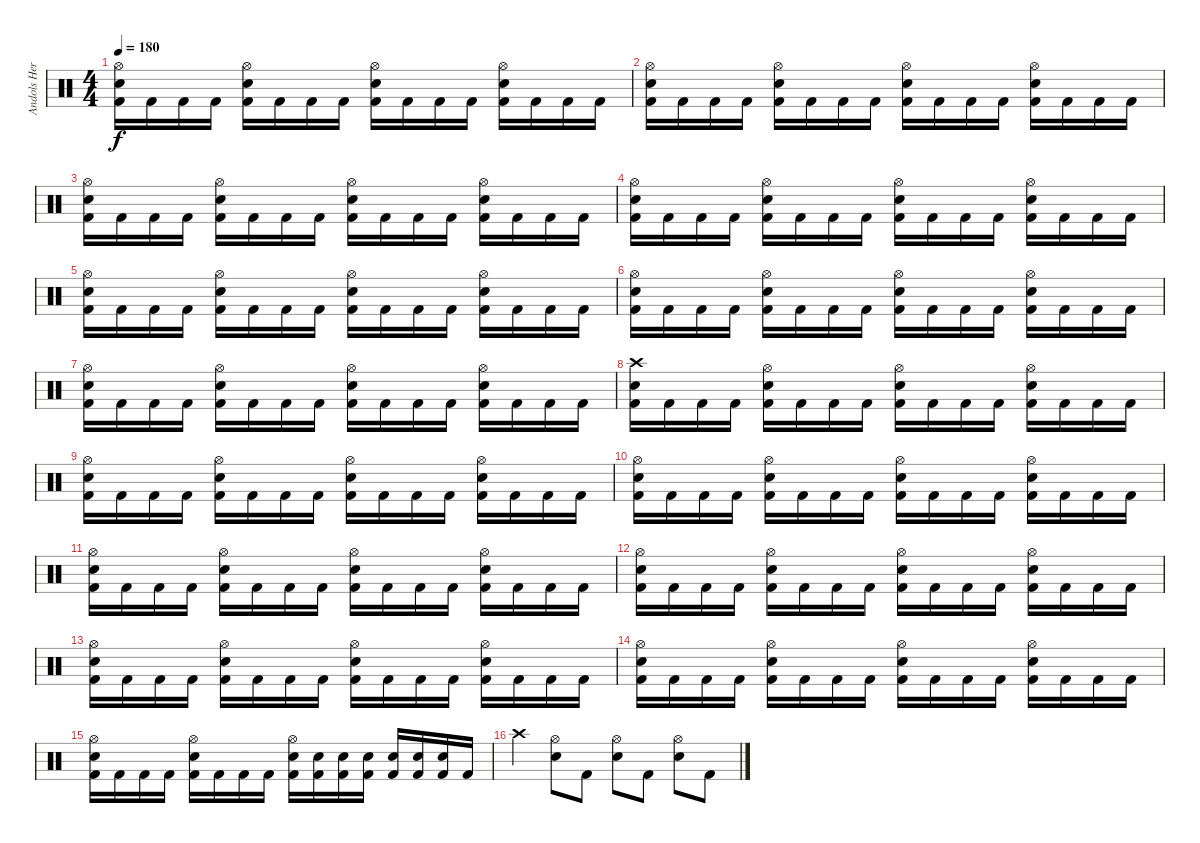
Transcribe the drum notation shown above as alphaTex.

\track ("Andols Herrick" "Andols Her") {instrument percussion}
\staff {score}
\articulation defaults
\ts (4 4)
\tempo 180
\clef neutral
\ks c
("Hi-Hat (open)" "Electric Snare (hit)" "Kick (hit) 2").16{dy f} "Kick (hit) 2".16 "Kick (hit) 2".16 "Kick (hit) 2".16 ("Hi-Hat (open)" "Electric Snare (hit)" "Kick (hit) 2").16 "Kick (hit) 2".16 "Kick (hit) 2".16 "Kick (hit) 2".16 ("Hi-Hat (open)" "Electric Snare (hit)" "Kick (hit) 2").16 "Kick (hit) 2".16 "Kick (hit) 2".16 "Kick (hit) 2".16 ("Hi-Hat (open)" "Electric Snare (hit)" "Kick (hit) 2").16 "Kick (hit) 2".16 "Kick (hit) 2".16 "Kick (hit) 2".16 |
("Hi-Hat (open)" "Electric Snare (hit)" "Kick (hit) 2").16 "Kick (hit) 2".16 "Kick (hit) 2".16 "Kick (hit) 2".16 ("Hi-Hat (open)" "Electric Snare (hit)" "Kick (hit) 2").16 "Kick (hit) 2".16 "Kick (hit) 2".16 "Kick (hit) 2".16 ("Hi-Hat (open)" "Electric Snare (hit)" "Kick (hit) 2").16 "Kick (hit) 2".16 "Kick (hit) 2".16 "Kick (hit) 2".16 ("Hi-Hat (open)" "Electric Snare (hit)" "Kick (hit) 2").16 "Kick (hit) 2".16 "Kick (hit) 2".16 "Kick (hit) 2".16 |
("Hi-Hat (open)" "Electric Snare (hit)" "Kick (hit) 2").16 "Kick (hit) 2".16 "Kick (hit) 2".16 "Kick (hit) 2".16 ("Hi-Hat (open)" "Electric Snare (hit)" "Kick (hit) 2").16 "Kick (hit) 2".16 "Kick (hit) 2".16 "Kick (hit) 2".16 ("Hi-Hat (open)" "Electric Snare (hit)" "Kick (hit) 2").16 "Kick (hit) 2".16 "Kick (hit) 2".16 "Kick (hit) 2".16 ("Hi-Hat (open)" "Electric Snare (hit)" "Kick (hit) 2").16 "Kick (hit) 2".16 "Kick (hit) 2".16 "Kick (hit) 2".16 |
("Hi-Hat (open)" "Electric Snare (hit)" "Kick (hit) 2").16 "Kick (hit) 2".16 "Kick (hit) 2".16 "Kick (hit) 2".16 ("Hi-Hat (open)" "Electric Snare (hit)" "Kick (hit) 2").16 "Kick (hit) 2".16 "Kick (hit) 2".16 "Kick (hit) 2".16 ("Hi-Hat (open)" "Electric Snare (hit)" "Kick (hit) 2").16 "Kick (hit) 2".16 "Kick (hit) 2".16 "Kick (hit) 2".16 ("Hi-Hat (open)" "Electric Snare (hit)" "Kick (hit) 2").16 "Kick (hit) 2".16 "Kick (hit) 2".16 "Kick (hit) 2".16 |
("Hi-Hat (open)" "Electric Snare (hit)" "Kick (hit) 2").16 "Kick (hit) 2".16 "Kick (hit) 2".16 "Kick (hit) 2".16 ("Hi-Hat (open)" "Electric Snare (hit)" "Kick (hit) 2").16 "Kick (hit) 2".16 "Kick (hit) 2".16 "Kick (hit) 2".16 ("Hi-Hat (open)" "Electric Snare (hit)" "Kick (hit) 2").16 "Kick (hit) 2".16 "Kick (hit) 2".16 "Kick (hit) 2".16 ("Hi-Hat (open)" "Electric Snare (hit)" "Kick (hit) 2").16 "Kick (hit) 2".16 "Kick (hit) 2".16 "Kick (hit) 2".16 |
("Hi-Hat (open)" "Electric Snare (hit)" "Kick (hit) 2").16 "Kick (hit) 2".16 "Kick (hit) 2".16 "Kick (hit) 2".16 ("Hi-Hat (open)" "Electric Snare (hit)" "Kick (hit) 2").16 "Kick (hit) 2".16 "Kick (hit) 2".16 "Kick (hit) 2".16 ("Hi-Hat (open)" "Electric Snare (hit)" "Kick (hit) 2").16 "Kick (hit) 2".16 "Kick (hit) 2".16 "Kick (hit) 2".16 ("Hi-Hat (open)" "Electric Snare (hit)" "Kick (hit) 2").16 "Kick (hit) 2".16 "Kick (hit) 2".16 "Kick (hit) 2".16 |
("Hi-Hat (open)" "Electric Snare (hit)" "Kick (hit) 2").16 "Kick (hit) 2".16 "Kick (hit) 2".16 "Kick (hit) 2".16 ("Hi-Hat (open)" "Electric Snare (hit)" "Kick (hit) 2").16 "Kick (hit) 2".16 "Kick (hit) 2".16 "Kick (hit) 2".16 ("Hi-Hat (open)" "Electric Snare (hit)" "Kick (hit) 2").16 "Kick (hit) 2".16 "Kick (hit) 2".16 "Kick (hit) 2".16 ("Hi-Hat (open)" "Electric Snare (hit)" "Kick (hit) 2").16 "Kick (hit) 2".16 "Kick (hit) 2".16 "Kick (hit) 2".16 |
("Crash high (hit)" "Electric Snare (hit)" "Kick (hit) 2").16 "Kick (hit) 2".16 "Kick (hit) 2".16 "Kick (hit) 2".16 ("Hi-Hat (open)" "Electric Snare (hit)" "Kick (hit) 2").16 "Kick (hit) 2".16 "Kick (hit) 2".16 "Kick (hit) 2".16 ("Hi-Hat (open)" "Electric Snare (hit)" "Kick (hit) 2").16 "Kick (hit) 2".16 "Kick (hit) 2".16 "Kick (hit) 2".16 ("Hi-Hat (open)" "Electric Snare (hit)" "Kick (hit) 2").16 "Kick (hit) 2".16 "Kick (hit) 2".16 "Kick (hit) 2".16 |
("Hi-Hat (open)" "Electric Snare (hit)" "Kick (hit) 2").16 "Kick (hit) 2".16 "Kick (hit) 2".16 "Kick (hit) 2".16 ("Hi-Hat (open)" "Electric Snare (hit)" "Kick (hit) 2").16 "Kick (hit) 2".16 "Kick (hit) 2".16 "Kick (hit) 2".16 ("Hi-Hat (open)" "Electric Snare (hit)" "Kick (hit) 2").16 "Kick (hit) 2".16 "Kick (hit) 2".16 "Kick (hit) 2".16 ("Hi-Hat (open)" "Electric Snare (hit)" "Kick (hit) 2").16 "Kick (hit) 2".16 "Kick (hit) 2".16 "Kick (hit) 2".16 |
("Hi-Hat (open)" "Electric Snare (hit)" "Kick (hit) 2").16 "Kick (hit) 2".16 "Kick (hit) 2".16 "Kick (hit) 2".16 ("Hi-Hat (open)" "Electric Snare (hit)" "Kick (hit) 2").16 "Kick (hit) 2".16 "Kick (hit) 2".16 "Kick (hit) 2".16 ("Hi-Hat (open)" "Electric Snare (hit)" "Kick (hit) 2").16 "Kick (hit) 2".16 "Kick (hit) 2".16 "Kick (hit) 2".16 ("Hi-Hat (open)" "Electric Snare (hit)" "Kick (hit) 2").16 "Kick (hit) 2".16 "Kick (hit) 2".16 "Kick (hit) 2".16 |
("Hi-Hat (open)" "Electric Snare (hit)" "Kick (hit) 2").16 "Kick (hit) 2".16 "Kick (hit) 2".16 "Kick (hit) 2".16 ("Hi-Hat (open)" "Electric Snare (hit)" "Kick (hit) 2").16 "Kick (hit) 2".16 "Kick (hit) 2".16 "Kick (hit) 2".16 ("Hi-Hat (open)" "Electric Snare (hit)" "Kick (hit) 2").16 "Kick (hit) 2".16 "Kick (hit) 2".16 "Kick (hit) 2".16 ("Hi-Hat (open)" "Electric Snare (hit)" "Kick (hit) 2").16 "Kick (hit) 2".16 "Kick (hit) 2".16 "Kick (hit) 2".16 |
("Hi-Hat (open)" "Electric Snare (hit)" "Kick (hit) 2").16 "Kick (hit) 2".16 "Kick (hit) 2".16 "Kick (hit) 2".16 ("Hi-Hat (open)" "Electric Snare (hit)" "Kick (hit) 2").16 "Kick (hit) 2".16 "Kick (hit) 2".16 "Kick (hit) 2".16 ("Hi-Hat (open)" "Electric Snare (hit)" "Kick (hit) 2").16 "Kick (hit) 2".16 "Kick (hit) 2".16 "Kick (hit) 2".16 ("Hi-Hat (open)" "Electric Snare (hit)" "Kick (hit) 2").16 "Kick (hit) 2".16 "Kick (hit) 2".16 "Kick (hit) 2".16 |
("Hi-Hat (open)" "Electric Snare (hit)" "Kick (hit) 2").16 "Kick (hit) 2".16 "Kick (hit) 2".16 "Kick (hit) 2".16 ("Hi-Hat (open)" "Electric Snare (hit)" "Kick (hit) 2").16 "Kick (hit) 2".16 "Kick (hit) 2".16 "Kick (hit) 2".16 ("Hi-Hat (open)" "Electric Snare (hit)" "Kick (hit) 2").16 "Kick (hit) 2".16 "Kick (hit) 2".16 "Kick (hit) 2".16 ("Hi-Hat (open)" "Electric Snare (hit)" "Kick (hit) 2").16 "Kick (hit) 2".16 "Kick (hit) 2".16 "Kick (hit) 2".16 |
("Hi-Hat (open)" "Electric Snare (hit)" "Kick (hit) 2").16 "Kick (hit) 2".16 "Kick (hit) 2".16 "Kick (hit) 2".16 ("Hi-Hat (open)" "Electric Snare (hit)" "Kick (hit) 2").16 "Kick (hit) 2".16 "Kick (hit) 2".16 "Kick (hit) 2".16 ("Hi-Hat (open)" "Electric Snare (hit)" "Kick (hit) 2").16 "Kick (hit) 2".16 "Kick (hit) 2".16 "Kick (hit) 2".16 ("Hi-Hat (open)" "Electric Snare (hit)" "Kick (hit) 2").16 "Kick (hit) 2".16 "Kick (hit) 2".16 "Kick (hit) 2".16 |
("Hi-Hat (open)" "Electric Snare (hit)" "Kick (hit) 2").16 "Kick (hit) 2".16 "Kick (hit) 2".16 "Kick (hit) 2".16 ("Hi-Hat (open)" "Electric Snare (hit)" "Kick (hit) 2").16 "Kick (hit) 2".16 "Kick (hit) 2".16 "Kick (hit) 2".16 ("Hi-Hat (open)" "Electric Snare (hit)" "Kick (hit) 2").16 ("Electric Snare (hit)" "Kick (hit) 2").16 ("Electric Snare (hit)" "Kick (hit) 2").16 ("Electric Snare (hit)" "Kick (hit) 2").16 ("Electric Snare (hit)" "Kick (hit) 2").16 ("Electric Snare (hit)" "Kick (hit) 2").16 ("Electric Snare (hit)" "Kick (hit) 2").16 "Kick (hit) 2".16 |
"Crash high (hit)".4 ("Hi-Hat (open)" "Electric Snare (hit)").8 "Kick (hit) 2".8 ("Hi-Hat (open)" "Electric Snare (hit)").8 "Kick (hit) 2".8 ("Hi-Hat (open)" "Electric Snare (hit)").8 "Kick (hit) 2".8
